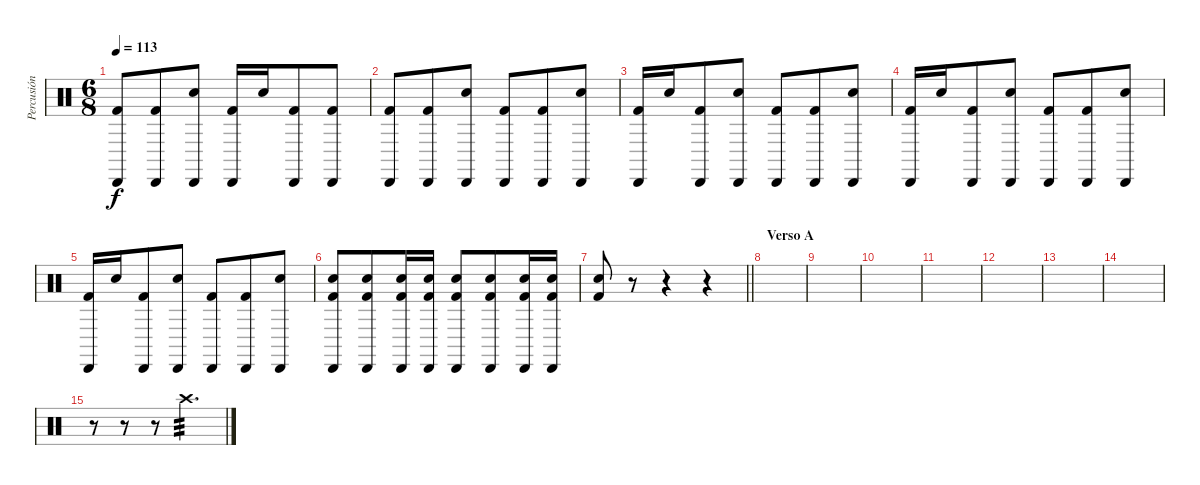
\track ("Percusión" "Percusión") {instrument percussion}
\staff {score}
\articulation defaults
\ts (6 8)
\tempo 113
\clef neutral
\ks c
("Cabasa (hit)" "Kick (hit) 2").8{dy f} ("Cabasa (hit)" "Kick (hit) 2").8 ("Cabasa (hit)" "Electric Snare (hit)").8 ("Cabasa (hit)" "Kick (hit) 2").16 "Electric Snare (hit)".16 ("Cabasa (hit)" "Kick (hit) 2").8 ("Cabasa (hit)" "Kick (hit) 2").8 |
("Cabasa (hit)" "Kick (hit) 2").8 ("Cabasa (hit)" "Kick (hit) 2").8 ("Cabasa (hit)" "Electric Snare (hit)").8 ("Cabasa (hit)" "Kick (hit) 2").8 ("Cabasa (hit)" "Kick (hit) 2").8 ("Cabasa (hit)" "Electric Snare (hit)").8 |
("Cabasa (hit)" "Kick (hit) 2").16 "Electric Snare (hit)".16 ("Cabasa (hit)" "Kick (hit) 2").8 ("Cabasa (hit)" "Electric Snare (hit)").8 ("Cabasa (hit)" "Kick (hit) 2").8 ("Cabasa (hit)" "Kick (hit) 2").8 ("Cabasa (hit)" "Electric Snare (hit)").8 |
("Cabasa (hit)" "Kick (hit) 2").16 "Electric Snare (hit)".16 ("Cabasa (hit)" "Kick (hit) 2").8 ("Cabasa (hit)" "Electric Snare (hit)").8 ("Cabasa (hit)" "Kick (hit) 2").8 ("Cabasa (hit)" "Kick (hit) 2").8 ("Cabasa (hit)" "Electric Snare (hit)").8 |
("Cabasa (hit)" "Kick (hit) 2").16 "Electric Snare (hit)".16 ("Cabasa (hit)" "Kick (hit) 2").8 ("Cabasa (hit)" "Electric Snare (hit)").8 ("Cabasa (hit)" "Kick (hit) 2").8 ("Cabasa (hit)" "Kick (hit) 2").8 ("Cabasa (hit)" "Electric Snare (hit)").8 |
("Cabasa (hit)" "Electric Snare (hit)" "Kick (hit) 2").8 ("Cabasa (hit)" "Electric Snare (hit)" "Kick (hit) 2").8 ("Cabasa (hit)" "Electric Snare (hit)" "Kick (hit) 2").16 ("Cabasa (hit)" "Electric Snare (hit)" "Kick (hit) 2").16 ("Cabasa (hit)" "Electric Snare (hit)" "Kick (hit) 2").8 ("Cabasa (hit)" "Electric Snare (hit)" "Kick (hit) 2").8 ("Cabasa (hit)" "Electric Snare (hit)" "Kick (hit) 2").16 ("Cabasa (hit)" "Electric Snare (hit)" "Kick (hit) 2").16 |
\barLineRight lightlight
("Electric Snare (hit)" "Kick (hit) 2").8 r.8 r.4 r.4 |
\section ("" "Verso A")
|
|
|
|
|
|
|
r.8 r.8 r.8{volume 0} "Crash high (hit)".4{d tp 3 volume 13}
